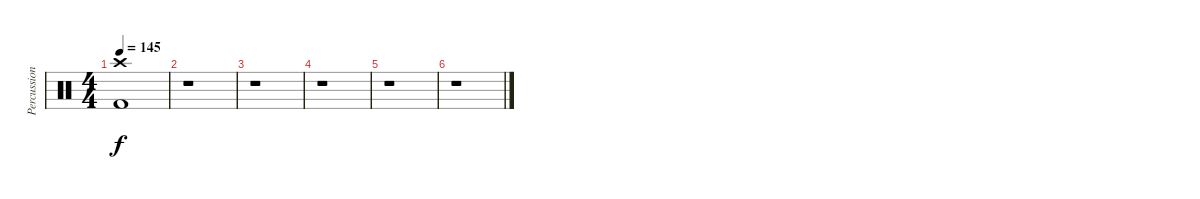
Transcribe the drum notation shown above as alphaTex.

\track ("Percussions" "Percussion") {instrument percussion}
\staff {score}
\articulation defaults
\ts (4 4)
\tempo 145
\clef neutral
\ks c
("Crash high (hit)" "Kick (hit) 2").1{dy f} |
r.1 |
r.1 |
r.1 |
r.1 |
r.1
